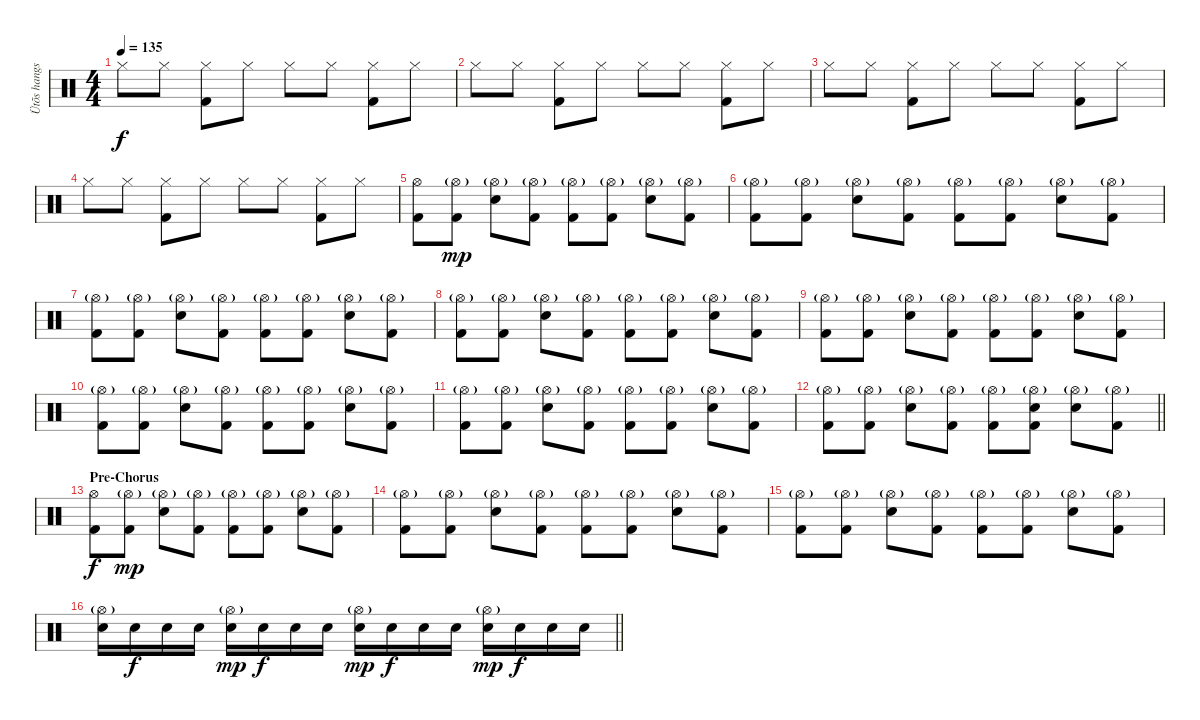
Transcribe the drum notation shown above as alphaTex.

\track ("Ütõs hangszer" "Ütõs hangs") {instrument percussion}
\staff {score}
\articulation defaults
\ts (4 4)
\tempo 135
\clef neutral
\ks c "Hi-Hat (closed)".8{dy f} "Hi-Hat (closed)".8
("Hi-Hat (closed)" "Kick (hit) 2").8 "Hi-Hat (closed)".8 "Hi-Hat (closed)".8 "Hi-Hat (closed)".8 ("Hi-Hat (closed)" "Kick (hit) 2").8 "Hi-Hat (closed)".8 |
"Hi-Hat (closed)".8 "Hi-Hat (closed)".8 ("Hi-Hat (closed)" "Kick (hit) 2").8 "Hi-Hat (closed)".8 "Hi-Hat (closed)".8 "Hi-Hat (closed)".8 ("Hi-Hat (closed)" "Kick (hit) 2").8 "Hi-Hat (closed)".8 |
"Hi-Hat (closed)".8 "Hi-Hat (closed)".8 ("Hi-Hat (closed)" "Kick (hit) 2").8 "Hi-Hat (closed)".8 "Hi-Hat (closed)".8 "Hi-Hat (closed)".8 ("Hi-Hat (closed)" "Kick (hit) 2").8 "Hi-Hat (closed)".8 |
"Hi-Hat (closed)".8 "Hi-Hat (closed)".8 ("Hi-Hat (closed)" "Kick (hit) 2").8 "Hi-Hat (closed)".8 "Hi-Hat (closed)".8 "Hi-Hat (closed)".8 ("Hi-Hat (closed)" "Kick (hit) 2").8 "Hi-Hat (closed)".8 |
("Hi-Hat (open)" "Kick (hit) 2").8 ("Hi-Hat (open)"{g} "Kick (hit) 2").8{dy mp} ("Hi-Hat (open)"{g} "Electric Snare (hit)").8 ("Hi-Hat (open)"{g} "Kick (hit) 2").8 ("Hi-Hat (open)"{g} "Kick (hit) 2").8 ("Hi-Hat (open)"{g} "Kick (hit) 2").8 ("Hi-Hat (open)"{g} "Electric Snare (hit)").8 ("Hi-Hat (open)"{g} "Kick (hit) 2").8 |
("Hi-Hat (open)"{g} "Kick (hit) 2").8 ("Hi-Hat (open)"{g} "Kick (hit) 2").8 ("Hi-Hat (open)"{g} "Electric Snare (hit)").8 ("Hi-Hat (open)"{g} "Kick (hit) 2").8 ("Hi-Hat (open)"{g} "Kick (hit) 2").8 ("Hi-Hat (open)"{g} "Kick (hit) 2").8 ("Hi-Hat (open)"{g} "Electric Snare (hit)").8 ("Hi-Hat (open)"{g} "Kick (hit) 2").8 |
("Hi-Hat (open)"{g} "Kick (hit) 2").8 ("Hi-Hat (open)"{g} "Kick (hit) 2").8 ("Hi-Hat (open)"{g} "Electric Snare (hit)").8 ("Hi-Hat (open)"{g} "Kick (hit) 2").8 ("Hi-Hat (open)"{g} "Kick (hit) 2").8 ("Hi-Hat (open)"{g} "Kick (hit) 2").8 ("Hi-Hat (open)"{g} "Electric Snare (hit)").8 ("Hi-Hat (open)"{g} "Kick (hit) 2").8 |
("Hi-Hat (open)"{g} "Kick (hit) 2").8 ("Hi-Hat (open)"{g} "Kick (hit) 2").8 ("Hi-Hat (open)"{g} "Electric Snare (hit)").8 ("Hi-Hat (open)"{g} "Kick (hit) 2").8 ("Hi-Hat (open)"{g} "Kick (hit) 2").8 ("Hi-Hat (open)"{g} "Kick (hit) 2").8 ("Hi-Hat (open)"{g} "Electric Snare (hit)").8 ("Hi-Hat (open)"{g} "Kick (hit) 2").8 |
("Hi-Hat (open)"{g} "Kick (hit) 2").8 ("Hi-Hat (open)"{g} "Kick (hit) 2").8 ("Hi-Hat (open)"{g} "Electric Snare (hit)").8 ("Hi-Hat (open)"{g} "Kick (hit) 2").8 ("Hi-Hat (open)"{g} "Kick (hit) 2").8 ("Hi-Hat (open)"{g} "Kick (hit) 2").8 ("Hi-Hat (open)"{g} "Electric Snare (hit)").8 ("Hi-Hat (open)"{g} "Kick (hit) 2").8 |
("Hi-Hat (open)"{g} "Kick (hit) 2").8 ("Hi-Hat (open)"{g} "Kick (hit) 2").8 ("Hi-Hat (open)"{g} "Electric Snare (hit)").8 ("Hi-Hat (open)"{g} "Kick (hit) 2").8 ("Hi-Hat (open)"{g} "Kick (hit) 2").8 ("Hi-Hat (open)"{g} "Kick (hit) 2").8 ("Hi-Hat (open)"{g} "Electric Snare (hit)").8 ("Hi-Hat (open)"{g} "Kick (hit) 2").8 |
("Hi-Hat (open)"{g} "Kick (hit) 2").8 ("Hi-Hat (open)"{g} "Kick (hit) 2").8 ("Hi-Hat (open)"{g} "Electric Snare (hit)").8 ("Hi-Hat (open)"{g} "Kick (hit) 2").8 ("Hi-Hat (open)"{g} "Kick (hit) 2").8 ("Hi-Hat (open)"{g} "Kick (hit) 2").8 ("Hi-Hat (open)"{g} "Electric Snare (hit)").8 ("Hi-Hat (open)"{g} "Kick (hit) 2").8 |
\barLineRight lightlight
("Hi-Hat (open)"{g} "Kick (hit) 2").8 ("Hi-Hat (open)"{g} "Kick (hit) 2").8 ("Hi-Hat (open)"{g} "Electric Snare (hit)").8 ("Hi-Hat (open)"{g} "Kick (hit) 2").8 ("Hi-Hat (open)"{g} "Kick (hit) 2").8 ("Hi-Hat (open)"{g} "Electric Snare (hit)" "Kick (hit) 2").8 ("Hi-Hat (open)"{g} "Electric Snare (hit)").8 ("Hi-Hat (open)"{g} "Kick (hit) 2").8 |
\section ("" "Pre-Chorus")
("Hi-Hat (open)" "Kick (hit) 2").8{dy f} ("Hi-Hat (open)"{g} "Kick (hit) 2").8{dy mp} ("Hi-Hat (open)"{g} "Electric Snare (hit)").8 ("Hi-Hat (open)"{g} "Kick (hit) 2").8 ("Hi-Hat (open)"{g} "Kick (hit) 2").8 ("Hi-Hat (open)"{g} "Kick (hit) 2").8 ("Hi-Hat (open)"{g} "Electric Snare (hit)").8 ("Hi-Hat (open)"{g} "Kick (hit) 2").8 |
("Hi-Hat (open)"{g} "Kick (hit) 2").8 ("Hi-Hat (open)"{g} "Kick (hit) 2").8 ("Hi-Hat (open)"{g} "Electric Snare (hit)").8 ("Hi-Hat (open)"{g} "Kick (hit) 2").8 ("Hi-Hat (open)"{g} "Kick (hit) 2").8 ("Hi-Hat (open)"{g} "Kick (hit) 2").8 ("Hi-Hat (open)"{g} "Electric Snare (hit)").8 ("Hi-Hat (open)"{g} "Kick (hit) 2").8 |
("Hi-Hat (open)"{g} "Kick (hit) 2").8 ("Hi-Hat (open)"{g} "Kick (hit) 2").8 ("Hi-Hat (open)"{g} "Electric Snare (hit)").8 ("Hi-Hat (open)"{g} "Kick (hit) 2").8 ("Hi-Hat (open)"{g} "Kick (hit) 2").8 ("Hi-Hat (open)"{g} "Kick (hit) 2").8 ("Hi-Hat (open)"{g} "Electric Snare (hit)").8 ("Hi-Hat (open)"{g} "Kick (hit) 2").8 |
\barLineRight lightlight
("Hi-Hat (open)"{g} "Electric Snare (hit)").16 "Electric Snare (hit)".16{dy f} "Electric Snare (hit)".16 "Electric Snare (hit)".16 ("Hi-Hat (open)"{g} "Electric Snare (hit)").16{dy mp} "Electric Snare (hit)".16{dy f} "Electric Snare (hit)".16 "Electric Snare (hit)".16 ("Hi-Hat (open)"{g} "Electric Snare (hit)").16{dy mp} "Electric Snare (hit)".16{dy f} "Electric Snare (hit)".16 "Electric Snare (hit)".16 ("Hi-Hat (open)"{g} "Electric Snare (hit)").16{dy mp} "Electric Snare (hit)".16{dy f} "Electric Snare (hit)".16 "Electric Snare (hit)".16
